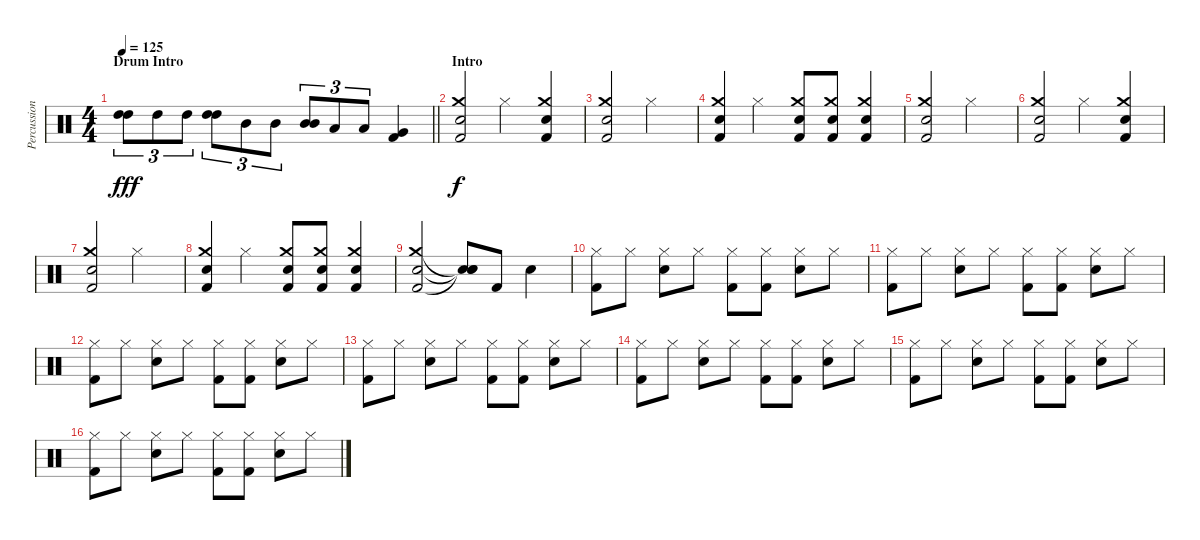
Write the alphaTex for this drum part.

\track ("Percussion" "Percussion") {instrument percussion}
\staff {score}
\articulation defaults
\ts (4 4)
\section ("" "Drum Intro")
\tempo 125
\clef neutral
\barLineRight lightlight
\ks c
("High Tom (hit)" "High Tom (hit)").8{tu (3 2) dy fff} "High Tom (hit)".8{tu (3 2)} "High Tom (hit)".8{tu (3 2)} ("High Tom (hit)" "High Tom (hit)").8{tu (3 2)} "Mid Tom (hit)".8{tu (3 2)} "Mid Tom (hit)".8{tu (3 2)} ("Mid Tom (hit)" "Mid Tom (hit)").8{tu (3 2)} "Low Tom (hit)".8{tu (3 2)} "Low Tom (hit)".8{tu (3 2)} ("Very Low Tom (hit)" "Kick (hit) 2").4 |
\section ("" "Intro")
("Crash medium (hit)" "Snare (hit) 2" "Kick (hit) 2").2{dy f} "Hi-Hat (closed)".4 ("Crash medium (hit)" "Snare (hit) 2" "Kick (hit) 2").4 |
("Crash medium (hit)" "Snare (hit) 2" "Kick (hit) 2").2 "Hi-Hat (closed)".2 |
("Crash medium (hit)" "Snare (hit) 2" "Kick (hit) 2").4 "Hi-Hat (closed)".4 ("Crash medium (hit)" "Snare (hit) 2" "Kick (hit) 2").8 ("Crash medium (hit)" "Snare (hit) 2" "Kick (hit) 2").8 ("Crash medium (hit)" "Snare (hit) 2" "Kick (hit) 2").4 |
("Crash medium (hit)" "Snare (hit) 2" "Kick (hit) 2").2 "Hi-Hat (closed)".2 |
("Crash medium (hit)" "Snare (hit) 2" "Kick (hit) 2").2 "Hi-Hat (closed)".4 ("Crash medium (hit)" "Snare (hit) 2" "Kick (hit) 2").4 |
("Crash medium (hit)" "Snare (hit) 2" "Kick (hit) 2").2 "Hi-Hat (closed)".2 |
("Crash medium (hit)" "Snare (hit) 2" "Kick (hit) 2").4 "Hi-Hat (closed)".4 ("Crash medium (hit)" "Snare (hit) 2" "Kick (hit) 2").8 ("Crash medium (hit)" "Snare (hit) 2" "Kick (hit) 2").8 ("Crash medium (hit)" "Snare (hit) 2" "Kick (hit) 2").4 |
("Crash medium (hit)" "Snare (hit) 2" "Kick (hit) 2").2 ("Snare (hit)"{t} "Snare (hit)"{t} "Snare (hit)"{t}).8 "Kick (hit) 2".8 "Snare (hit) 2".4 |
("Hi-Hat (closed)" "Kick (hit) 2").8 "Hi-Hat (closed)".8 ("Hi-Hat (closed)" "Snare (hit) 2").8 "Hi-Hat (closed)".8 ("Hi-Hat (closed)" "Kick (hit) 2").8 ("Hi-Hat (closed)" "Kick (hit) 2").8 ("Hi-Hat (closed)" "Snare (hit) 2").8 "Hi-Hat (closed)".8 |
("Hi-Hat (closed)" "Kick (hit) 2").8 "Hi-Hat (closed)".8 ("Hi-Hat (closed)" "Snare (hit) 2").8 "Hi-Hat (closed)".8 ("Hi-Hat (closed)" "Kick (hit) 2").8 ("Hi-Hat (closed)" "Kick (hit) 2").8 ("Hi-Hat (closed)" "Snare (hit) 2").8 "Hi-Hat (closed)".8 |
("Hi-Hat (closed)" "Kick (hit) 2").8 "Hi-Hat (closed)".8 ("Hi-Hat (closed)" "Snare (hit) 2").8 "Hi-Hat (closed)".8 ("Hi-Hat (closed)" "Kick (hit) 2").8 ("Hi-Hat (closed)" "Kick (hit) 2").8 ("Hi-Hat (closed)" "Snare (hit) 2").8 "Hi-Hat (closed)".8 |
("Hi-Hat (closed)" "Kick (hit) 2").8 "Hi-Hat (closed)".8 ("Hi-Hat (closed)" "Snare (hit) 2").8 "Hi-Hat (closed)".8 ("Hi-Hat (closed)" "Kick (hit) 2").8 ("Hi-Hat (closed)" "Kick (hit) 2").8 ("Hi-Hat (closed)" "Snare (hit) 2").8 "Hi-Hat (closed)".8 |
("Hi-Hat (closed)" "Kick (hit) 2").8 "Hi-Hat (closed)".8 ("Hi-Hat (closed)" "Snare (hit) 2").8 "Hi-Hat (closed)".8 ("Hi-Hat (closed)" "Kick (hit) 2").8 ("Hi-Hat (closed)" "Kick (hit) 2").8 ("Hi-Hat (closed)" "Snare (hit) 2").8 "Hi-Hat (closed)".8 |
("Hi-Hat (closed)" "Kick (hit) 2").8 "Hi-Hat (closed)".8 ("Hi-Hat (closed)" "Snare (hit) 2").8 "Hi-Hat (closed)".8 ("Hi-Hat (closed)" "Kick (hit) 2").8 ("Hi-Hat (closed)" "Kick (hit) 2").8 ("Hi-Hat (closed)" "Snare (hit) 2").8 "Hi-Hat (closed)".8 |
("Hi-Hat (closed)" "Kick (hit) 2").8 "Hi-Hat (closed)".8 ("Hi-Hat (closed)" "Snare (hit) 2").8 "Hi-Hat (closed)".8 ("Hi-Hat (closed)" "Kick (hit) 2").8 ("Hi-Hat (closed)" "Kick (hit) 2").8 ("Hi-Hat (closed)" "Snare (hit) 2").8 "Hi-Hat (closed)".8
